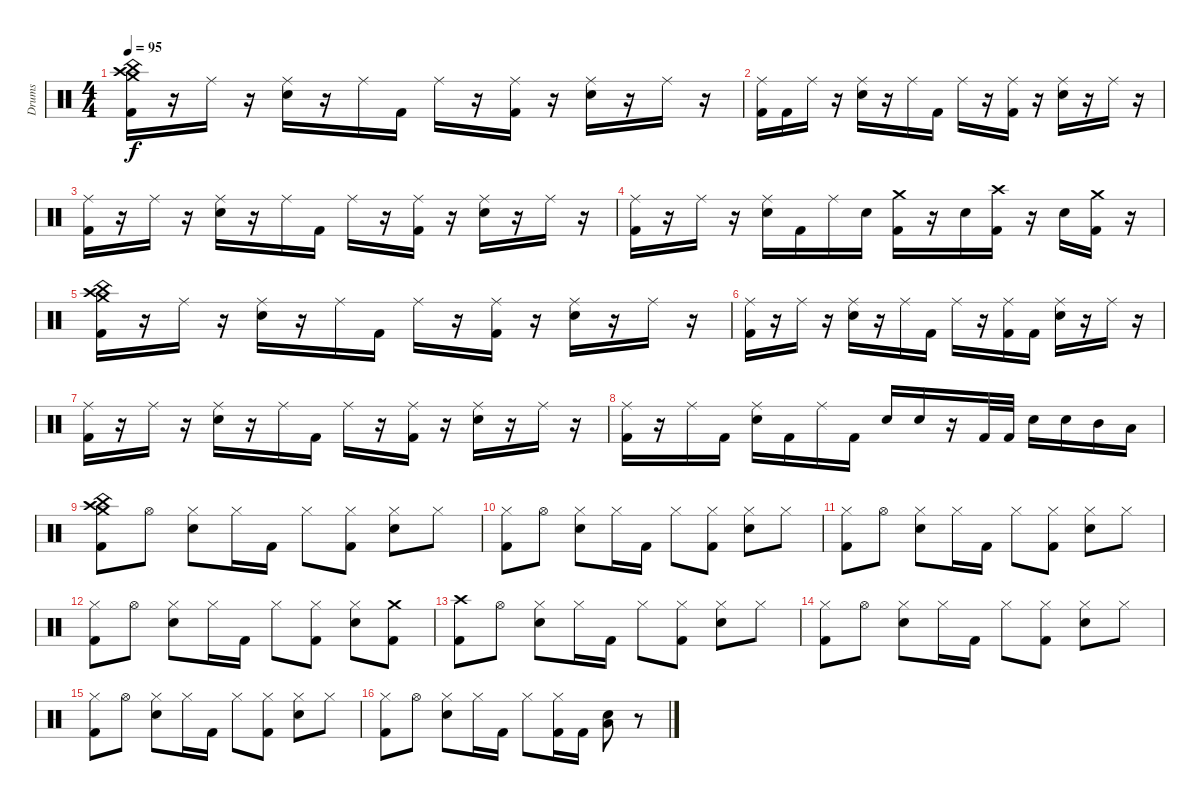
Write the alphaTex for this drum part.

\track ("Drums" "Drums") {instrument percussion}
\staff {score}
\articulation defaults
\ts (4 4)
\tempo 95
\clef neutral
\ks c
("Crash high (hit)" "Crash medium (hit)" "China (hit)" "Kick (hit) 2").16{dy f} r.16 "Ride (middle)".16 r.16 ("Ride (middle)" "Electric Snare (hit)").16 r.16 "Ride (middle)".16 "Kick (hit) 2".16 "Ride (middle)".16 r.16 ("Ride (middle)" "Kick (hit) 2").16 r.16 ("Ride (middle)" "Electric Snare (hit)").16 r.16 "Ride (middle)".16 r.16 |
("Ride (middle)" "Kick (hit) 2").16 "Kick (hit) 2".16 "Ride (middle)".16 r.16 ("Ride (middle)" "Electric Snare (hit)").16 r.16 "Ride (middle)".16 "Kick (hit) 2".16 "Ride (middle)".16 r.16 ("Ride (middle)" "Kick (hit) 2").16 r.16 ("Ride (middle)" "Electric Snare (hit)").16 r.16 "Ride (middle)".16 r.16 |
("Ride (middle)" "Kick (hit) 2").16 r.16 "Ride (middle)".16 r.16 ("Ride (middle)" "Electric Snare (hit)").16 r.16 "Ride (middle)".16 "Kick (hit) 2".16 "Ride (middle)".16 r.16 ("Ride (middle)" "Kick (hit) 2").16 r.16 ("Ride (middle)" "Electric Snare (hit)").16 r.16 "Ride (middle)".16 r.16 |
("Ride (middle)" "Kick (hit) 2").16 r.16 "Ride (middle)".16 r.16 ("Ride (middle)" "Electric Snare (hit)").16 "Kick (hit) 2".16 "Ride (middle)".16 "Electric Snare (hit)".16 ("Crash medium (hit)" "Kick (hit) 2").16 r.16 "Electric Snare (hit)".16 ("Crash high (hit)" "Kick (hit) 2").16 r.16 "Electric Snare (hit)".16 ("Crash medium (hit)" "Kick (hit) 2").16 r.16 |
("Crash high (hit)" "Crash medium (hit)" "China (hit)" "Kick (hit) 2").16 r.16 "Ride (middle)".16 r.16 ("Ride (middle)" "Electric Snare (hit)").16 r.16 "Ride (middle)".16 "Kick (hit) 2".16 "Ride (middle)".16 r.16 ("Ride (middle)" "Kick (hit) 2").16 r.16 ("Ride (middle)" "Electric Snare (hit)").16 r.16 "Ride (middle)".16 r.16 |
("Ride (middle)" "Kick (hit) 2").16 r.16 "Ride (middle)".16 r.16 ("Ride (middle)" "Electric Snare (hit)").16 r.16 "Ride (middle)".16 "Kick (hit) 2".16 "Ride (middle)".16 r.16 ("Ride (middle)" "Kick (hit) 2").16 "Kick (hit) 2".16 ("Ride (middle)" "Electric Snare (hit)").16 r.16 "Ride (middle)".16 r.16 |
("Ride (middle)" "Kick (hit) 2").16 r.16 "Ride (middle)".16 r.16 ("Ride (middle)" "Electric Snare (hit)").16 r.16 "Ride (middle)".16 "Kick (hit) 2".16 "Ride (middle)".16 r.16 ("Ride (middle)" "Kick (hit) 2").16 r.16 ("Ride (middle)" "Electric Snare (hit)").16 r.16 "Ride (middle)".16 r.16 |
("Ride (middle)" "Kick (hit) 2").16 r.16 "Ride (middle)".16 "Kick (hit) 2".16 ("Ride (middle)" "Electric Snare (hit)").16 "Kick (hit) 2".16 "Ride (middle)".16 "Kick (hit) 2".16 "Electric Snare (hit)".16 "Electric Snare (hit)".16 r.16 "Kick (hit) 2".32 "Kick (hit) 2".32 "Electric Snare (hit)".16 "Electric Snare (hit)".16 "Mid Tom (hit)".16 "Low Tom (hit)".16 |
("Crash high (hit)" "Crash medium (hit)" "China (hit)" "Kick (hit) 2").8 "Hi-Hat (open)".8 ("Hi-Hat (closed)" "Electric Snare (hit)").8 "Hi-Hat (closed)".16 "Kick (hit) 2".16 "Hi-Hat (closed)".8 ("Hi-Hat (closed)" "Kick (hit) 2").8 ("Hi-Hat (closed)" "Electric Snare (hit)").8 "Hi-Hat (closed)".8 |
("Hi-Hat (closed)" "Kick (hit) 2").8 "Hi-Hat (open)".8 ("Hi-Hat (closed)" "Electric Snare (hit)").8 "Hi-Hat (closed)".16 "Kick (hit) 2".16 "Hi-Hat (closed)".8 ("Hi-Hat (closed)" "Kick (hit) 2").8 ("Hi-Hat (closed)" "Electric Snare (hit)").8 "Hi-Hat (closed)".8 |
("Hi-Hat (closed)" "Kick (hit) 2").8 "Hi-Hat (open)".8 ("Hi-Hat (closed)" "Electric Snare (hit)").8 "Hi-Hat (closed)".16 "Kick (hit) 2".16 "Hi-Hat (closed)".8 ("Hi-Hat (closed)" "Kick (hit) 2").8 ("Hi-Hat (closed)" "Electric Snare (hit)").8 "Hi-Hat (closed)".8 |
("Hi-Hat (closed)" "Kick (hit) 2").8 "Hi-Hat (open)".8 ("Hi-Hat (closed)" "Electric Snare (hit)").8 "Hi-Hat (closed)".16 "Kick (hit) 2".16 "Hi-Hat (closed)".8 ("Hi-Hat (closed)" "Kick (hit) 2").8 ("Hi-Hat (closed)" "Electric Snare (hit)").8 ("Crash medium (hit)" "Kick (hit) 2").8 |
("Crash high (hit)" "Kick (hit) 2").8 "Hi-Hat (open)".8 ("Hi-Hat (closed)" "Electric Snare (hit)").8 "Hi-Hat (closed)".16 "Kick (hit) 2".16 "Hi-Hat (closed)".8 ("Hi-Hat (closed)" "Kick (hit) 2").8 ("Hi-Hat (closed)" "Electric Snare (hit)").8 "Hi-Hat (closed)".8 |
("Hi-Hat (closed)" "Kick (hit) 2").8 "Hi-Hat (open)".8 ("Hi-Hat (closed)" "Electric Snare (hit)").8 "Hi-Hat (closed)".16 "Kick (hit) 2".16 "Hi-Hat (closed)".8 ("Hi-Hat (closed)" "Kick (hit) 2").8 ("Hi-Hat (closed)" "Electric Snare (hit)").8 "Hi-Hat (closed)".8 |
("Hi-Hat (closed)" "Kick (hit) 2").8 "Hi-Hat (open)".8 ("Hi-Hat (closed)" "Electric Snare (hit)").8 "Hi-Hat (closed)".16 "Kick (hit) 2".16 "Hi-Hat (closed)".8 ("Hi-Hat (closed)" "Kick (hit) 2").8 ("Hi-Hat (closed)" "Electric Snare (hit)").8 "Hi-Hat (closed)".8 |
("Hi-Hat (closed)" "Kick (hit) 2").8 "Hi-Hat (open)".8 ("Hi-Hat (closed)" "Electric Snare (hit)").8 "Hi-Hat (closed)".16 "Kick (hit) 2".16 "Hi-Hat (closed)".8 ("Hi-Hat (closed)" "Kick (hit) 2").16 "Kick (hit) 2".16 ("Low Floor Tom (hit)" "Electric Snare (hit)").8 r.8
